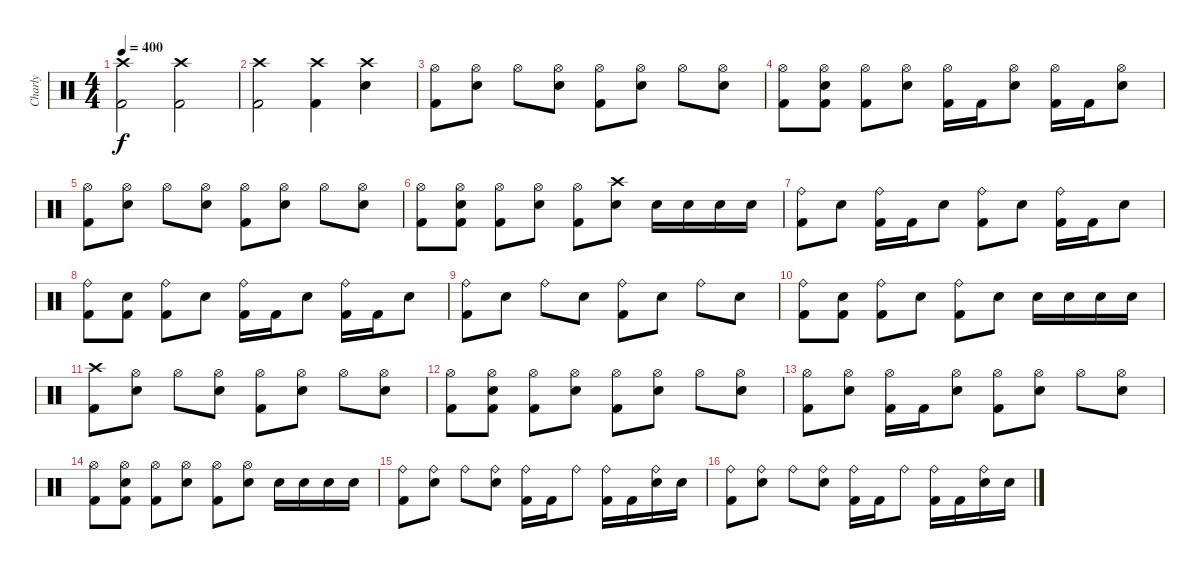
\track ("Charly" "Charly") {instrument percussion}
\staff {score}
\articulation defaults
\ts (4 4)
\tempo 400
\clef neutral
\ks c
("Crash high (hit)" "Kick (hit) 2").2{dy f} ("Crash high (hit)" "Kick (hit) 2").2 |
("Crash high (hit)" "Kick (hit) 2").2 ("Crash high (hit)" "Kick (hit) 2").4 ("Crash high (hit)" "Electric Snare (hit)").4 |
("Hi-Hat (open)" "Kick (hit) 2").8 ("Hi-Hat (open)" "Electric Snare (hit)").8 "Hi-Hat (open)".8 ("Hi-Hat (open)" "Electric Snare (hit)").8 ("Hi-Hat (open)" "Kick (hit) 2").8 ("Hi-Hat (open)" "Electric Snare (hit)").8 "Hi-Hat (open)".8 ("Hi-Hat (open)" "Electric Snare (hit)").8 |
("Hi-Hat (open)" "Kick (hit) 2").8 ("Hi-Hat (open)" "Electric Snare (hit)" "Kick (hit) 2").8 ("Hi-Hat (open)" "Kick (hit) 2").8 ("Hi-Hat (open)" "Electric Snare (hit)").8 ("Hi-Hat (open)" "Kick (hit) 2").16 "Kick (hit) 2".16 ("Hi-Hat (open)" "Electric Snare (hit)").8 ("Hi-Hat (open)" "Kick (hit) 2").16 "Kick (hit) 2".16 ("Hi-Hat (open)" "Electric Snare (hit)").8 |
("Hi-Hat (open)" "Kick (hit) 2").8 ("Hi-Hat (open)" "Electric Snare (hit)").8 "Hi-Hat (open)".8 ("Hi-Hat (open)" "Electric Snare (hit)").8 ("Hi-Hat (open)" "Kick (hit) 2").8 ("Hi-Hat (open)" "Electric Snare (hit)").8 "Hi-Hat (open)".8 ("Hi-Hat (open)" "Electric Snare (hit)").8 |
("Hi-Hat (open)" "Kick (hit) 2").8 ("Hi-Hat (open)" "Electric Snare (hit)" "Kick (hit) 2").8 ("Hi-Hat (open)" "Kick (hit) 2").8 ("Hi-Hat (open)" "Electric Snare (hit)").8 ("Hi-Hat (open)" "Kick (hit) 2").8 ("Crash high (hit)" "Electric Snare (hit)").8 "Electric Snare (hit)".16 "Electric Snare (hit)".16 "Electric Snare (hit)".16 "Electric Snare (hit)".16 |
("Ride (bell)" "Kick (hit) 2").8 "Electric Snare (hit)".8 ("Ride (bell)" "Kick (hit) 2").16 "Kick (hit) 2".16 "Electric Snare (hit)".8 ("Ride (bell)" "Kick (hit) 2").8 "Electric Snare (hit)".8 ("Ride (bell)" "Kick (hit) 2").16 "Kick (hit) 2".16 "Electric Snare (hit)".8 |
("Ride (bell)" "Kick (hit) 2").8 ("Electric Snare (hit)" "Kick (hit) 2").8 ("Ride (bell)" "Kick (hit) 2").8 "Electric Snare (hit)".8 ("Ride (bell)" "Kick (hit) 2").16 "Kick (hit) 2".16 "Electric Snare (hit)".8 ("Ride (bell)" "Kick (hit) 2").16 "Kick (hit) 2".16 "Electric Snare (hit)".8 |
("Ride (bell)" "Kick (hit) 2").8 "Electric Snare (hit)".8 "Ride (bell)".8 "Electric Snare (hit)".8 ("Ride (bell)" "Kick (hit) 2").8 "Electric Snare (hit)".8 "Ride (bell)".8 "Electric Snare (hit)".8 |
("Ride (bell)" "Kick (hit) 2").8 ("Electric Snare (hit)" "Kick (hit) 2").8 ("Ride (bell)" "Kick (hit) 2").8 "Electric Snare (hit)".8 ("Ride (bell)" "Kick (hit) 2").8 "Electric Snare (hit)".8 "Electric Snare (hit)".16 "Electric Snare (hit)".16 "Electric Snare (hit)".16 "Electric Snare (hit)".16 |
("Crash high (hit)" "Kick (hit) 2").8 ("Hi-Hat (open)" "Electric Snare (hit)").8 "Hi-Hat (open)".8 ("Hi-Hat (open)" "Electric Snare (hit)").8 ("Hi-Hat (open)" "Kick (hit) 2").8 ("Hi-Hat (open)" "Electric Snare (hit)").8 "Hi-Hat (open)".8 ("Hi-Hat (open)" "Electric Snare (hit)").8 |
("Hi-Hat (open)" "Kick (hit) 2").8 ("Hi-Hat (open)" "Electric Snare (hit)" "Kick (hit) 2").8 ("Hi-Hat (open)" "Kick (hit) 2").8 ("Hi-Hat (open)" "Electric Snare (hit)").8 ("Hi-Hat (open)" "Kick (hit) 2").8 ("Hi-Hat (open)" "Electric Snare (hit)").8 "Hi-Hat (open)".8 ("Hi-Hat (open)" "Electric Snare (hit)").8 |
("Hi-Hat (open)" "Kick (hit) 2").8 ("Hi-Hat (open)" "Electric Snare (hit)").8 ("Hi-Hat (open)" "Kick (hit) 2").16 "Kick (hit) 2".16 ("Hi-Hat (open)" "Electric Snare (hit)").8 ("Hi-Hat (open)" "Kick (hit) 2").8 ("Hi-Hat (open)" "Electric Snare (hit)").8 "Hi-Hat (open)".8 ("Hi-Hat (open)" "Electric Snare (hit)").8 |
("Hi-Hat (open)" "Kick (hit) 2").8 ("Hi-Hat (open)" "Electric Snare (hit)" "Kick (hit) 2").8 ("Hi-Hat (open)" "Kick (hit) 2").8 ("Hi-Hat (open)" "Electric Snare (hit)").8 ("Hi-Hat (open)" "Kick (hit) 2").8 ("Hi-Hat (open)" "Electric Snare (hit)").8 "Electric Snare (hit)".16 "Electric Snare (hit)".16 "Electric Snare (hit)".16 "Electric Snare (hit)".16 |
("Ride (bell)" "Kick (hit) 2").8 ("Ride (bell)" "Electric Snare (hit)").8 "Ride (bell)".8 ("Ride (bell)" "Electric Snare (hit)").8 ("Ride (bell)" "Kick (hit) 2").16 "Kick (hit) 2".16 "Ride (bell)".8 ("Ride (bell)" "Kick (hit) 2").16 "Kick (hit) 2".16 ("Ride (bell)" "Electric Snare (hit)").16 "Electric Snare (hit)".16 |
("Ride (bell)" "Kick (hit) 2").8 ("Ride (bell)" "Electric Snare (hit)").8 "Ride (bell)".8 ("Ride (bell)" "Electric Snare (hit)").8 ("Ride (bell)" "Kick (hit) 2").16 "Kick (hit) 2".16 "Ride (bell)".8 ("Ride (bell)" "Kick (hit) 2").16 "Kick (hit) 2".16 ("Ride (bell)" "Electric Snare (hit)").16 "Electric Snare (hit)".16
